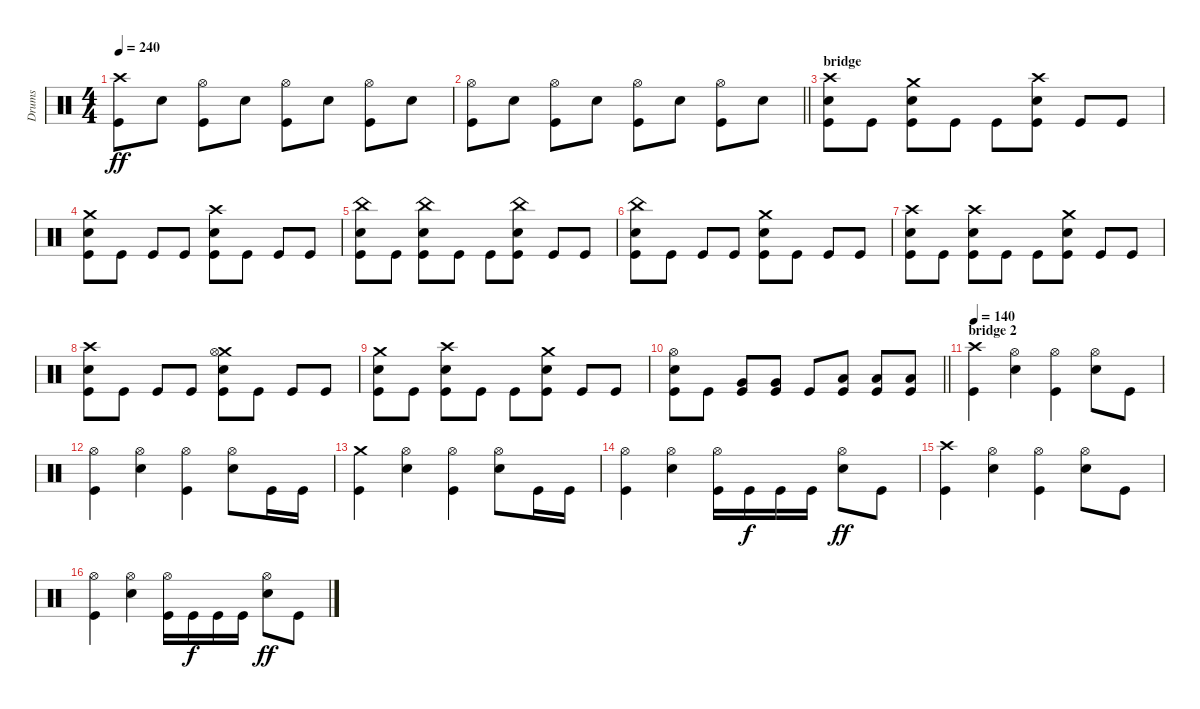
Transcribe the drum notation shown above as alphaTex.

\track ("Drums" "Drums") {instrument percussion}
\staff {score}
\articulation defaults
\ts (4 4)
\tempo 240
\clef neutral
\ks c
("Crash high (hit)" "Kick (hit)").8{dy ff} "Electric Snare (hit)".8 ("Hi-Hat (open)" "Kick (hit)").8 "Electric Snare (hit)".8 ("Hi-Hat (open)" "Kick (hit)").8 "Electric Snare (hit)".8 ("Hi-Hat (open)" "Kick (hit)").8 "Electric Snare (hit)".8 |
\barLineRight lightlight
("Hi-Hat (open)" "Kick (hit)").8 "Electric Snare (hit)".8 ("Hi-Hat (open)" "Kick (hit)").8 "Electric Snare (hit)".8 ("Hi-Hat (open)" "Kick (hit)").8 "Electric Snare (hit)".8 ("Hi-Hat (open)" "Kick (hit)").8 "Electric Snare (hit)".8 |
\section ("" "bridge")
("Crash high (hit)" "Electric Snare (hit)" "Kick (hit)").8 "Kick (hit)".8 ("Crash medium (hit)" "Electric Snare (hit)" "Kick (hit)").8 "Kick (hit)".8 "Kick (hit)".8 ("Crash high (hit)" "Electric Snare (hit)" "Kick (hit)").8 "Kick (hit)".8 "Kick (hit)".8 |
("Crash medium (hit)" "Electric Snare (hit)" "Kick (hit)").8 "Kick (hit)".8 "Kick (hit)".8 "Kick (hit)".8 ("Crash high (hit)" "Electric Snare (hit)" "Kick (hit)").8 "Kick (hit)".8 "Kick (hit)".8 "Kick (hit)".8 |
("China (hit)" "Electric Snare (hit)" "Kick (hit)").8 "Kick (hit)".8 ("China (hit)" "Electric Snare (hit)" "Kick (hit)").8 "Kick (hit)".8 "Kick (hit)".8 ("China (hit)" "Electric Snare (hit)" "Kick (hit)").8 "Kick (hit)".8 "Kick (hit)".8 |
("China (hit)" "Electric Snare (hit)" "Kick (hit)").8 "Kick (hit)".8 "Kick (hit)".8 "Kick (hit)".8 ("Crash medium (hit)" "Electric Snare (hit)" "Kick (hit)").8 "Kick (hit)".8 "Kick (hit)".8 "Kick (hit)".8 |
("Crash high (hit)" "Electric Snare (hit)" "Kick (hit)").8 "Kick (hit)".8 ("Crash high (hit)" "Electric Snare (hit)" "Kick (hit)").8 "Kick (hit)".8 "Kick (hit)".8 ("Crash medium (hit)" "Electric Snare (hit)" "Kick (hit)").8 "Kick (hit)".8 "Kick (hit)".8 |
("Crash high (hit)" "Electric Snare (hit)" "Kick (hit)").8 "Kick (hit)".8 "Kick (hit)".8 "Kick (hit)".8 ("Crash medium (hit)" "Hi-Hat (open)" "Electric Snare (hit)" "Kick (hit)").8 "Kick (hit)".8 "Kick (hit)".8 "Kick (hit)".8 |
("Crash medium (hit)" "Electric Snare (hit)" "Kick (hit)").8 "Kick (hit)".8 ("Crash high (hit)" "Electric Snare (hit)" "Kick (hit)").8 "Kick (hit)".8 "Kick (hit)".8 ("Crash medium (hit)" "Electric Snare (hit)" "Kick (hit)").8 "Kick (hit)".8 "Kick (hit)".8 |
\barLineRight lightlight
("Hi-Hat (open)" "Electric Snare (hit)" "Kick (hit)").8 "Kick (hit)".8 ("Very Low Tom (hit)" "Kick (hit)").8 ("Very Low Tom (hit)" "Kick (hit)").8 "Kick (hit)".8 ("Low Floor Tom (hit)" "Kick (hit)").8 ("Low Floor Tom (hit)" "Kick (hit)").8 ("Low Floor Tom (hit)" "Kick (hit)").8 |
\section ("" "bridge 2")
\tempo 140
("Crash high (hit)" "Kick (hit)").4 ("Hi-Hat (open)" "Electric Snare (hit)").4 ("Hi-Hat (open)" "Kick (hit)").4 ("Hi-Hat (open)" "Electric Snare (hit)").8 "Kick (hit)".8 |
("Hi-Hat (open)" "Kick (hit)").4 ("Hi-Hat (open)" "Electric Snare (hit)").4 ("Hi-Hat (open)" "Kick (hit)").4 ("Hi-Hat (open)" "Electric Snare (hit)").8 "Kick (hit)".16 "Kick (hit)".16 |
("Crash medium (hit)" "Kick (hit)").4 ("Hi-Hat (open)" "Electric Snare (hit)").4 ("Hi-Hat (open)" "Kick (hit)").4 ("Hi-Hat (open)" "Electric Snare (hit)").8 "Kick (hit)".16 "Kick (hit)".16 |
("Hi-Hat (open)" "Kick (hit)").4 ("Hi-Hat (open)" "Electric Snare (hit)").4 ("Hi-Hat (open)" "Kick (hit)").16 "Kick (hit)".16{dy f} "Kick (hit)".16 "Kick (hit)".16 ("Hi-Hat (open)" "Electric Snare (hit)").8{dy ff} "Kick (hit)".8 |
("Crash high (hit)" "Kick (hit)").4 ("Hi-Hat (open)" "Electric Snare (hit)").4 ("Hi-Hat (open)" "Kick (hit)").4 ("Hi-Hat (open)" "Electric Snare (hit)").8 "Kick (hit)".8 |
("Hi-Hat (open)" "Kick (hit)").4 ("Hi-Hat (open)" "Electric Snare (hit)").4 ("Hi-Hat (open)" "Kick (hit)").16 "Kick (hit)".16{dy f} "Kick (hit)".16 "Kick (hit)".16 ("Hi-Hat (open)" "Electric Snare (hit)").8{dy ff} "Kick (hit)".8
